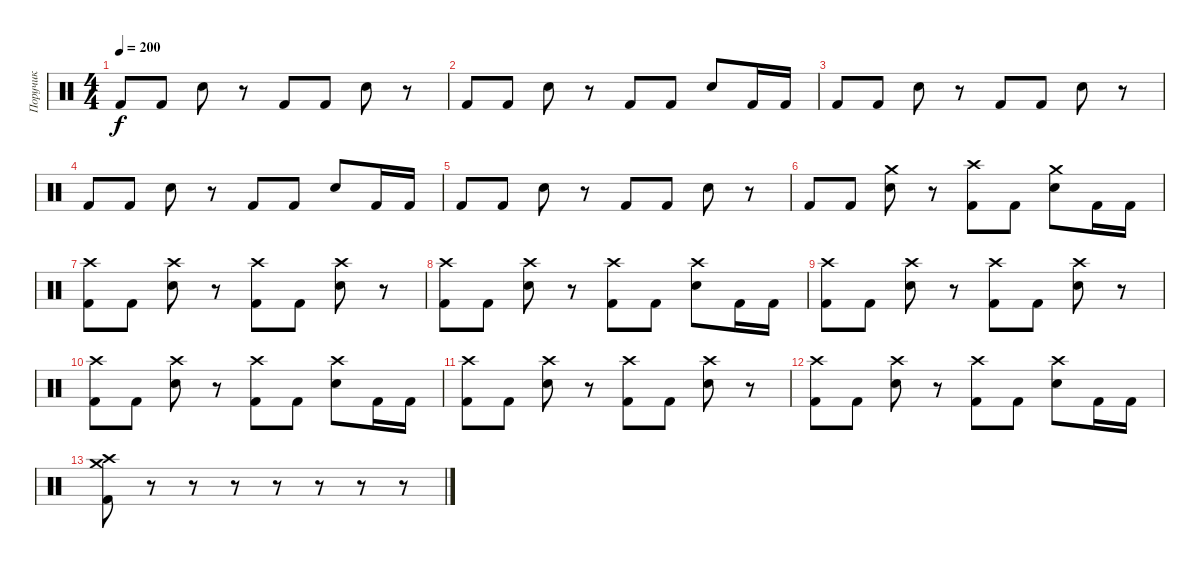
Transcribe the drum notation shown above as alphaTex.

\track ("Поручик" "Поручик") {instrument percussion}
\staff {score}
\articulation defaults
\ts (4 4)
\tempo 200
\clef neutral
\ks c "Kick (hit) 2".8{dy f} "Kick (hit) 2".8 "Electric Snare (hit)".8
r.8 "Kick (hit) 2".8 "Kick (hit) 2".8 "Electric Snare (hit)".8 r.8 |
"Kick (hit) 2".8 "Kick (hit) 2".8 "Electric Snare (hit)".8 r.8 "Kick (hit) 2".8 "Kick (hit) 2".8 "Electric Snare (hit)".8 "Kick (hit) 2".16 "Kick (hit) 2".16 |
"Kick (hit) 2".8 "Kick (hit) 2".8 "Electric Snare (hit)".8 r.8 "Kick (hit) 2".8 "Kick (hit) 2".8 "Electric Snare (hit)".8 r.8 |
"Kick (hit) 2".8 "Kick (hit) 2".8 "Electric Snare (hit)".8 r.8 "Kick (hit) 2".8 "Kick (hit) 2".8 "Electric Snare (hit)".8 "Kick (hit) 2".16 "Kick (hit) 2".16 |
"Kick (hit) 2".8 "Kick (hit) 2".8 "Electric Snare (hit)".8 r.8 "Kick (hit) 2".8 "Kick (hit) 2".8 "Electric Snare (hit)".8 r.8 |
"Kick (hit) 2".8 "Kick (hit) 2".8 ("Crash medium (hit)" "Electric Snare (hit)").8 r.8 ("Crash high (hit)" "Kick (hit) 2").8 "Kick (hit) 2".8 ("Crash medium (hit)" "Electric Snare (hit)").8 "Kick (hit) 2".16 "Kick (hit) 2".16 |
("Crash high (hit)" "Kick (hit) 2").8 "Kick (hit) 2".8 ("Crash high (hit)" "Electric Snare (hit)").8 r.8 ("Crash high (hit)" "Kick (hit) 2").8 "Kick (hit) 2".8 ("Crash high (hit)" "Electric Snare (hit)").8 r.8 |
("Crash high (hit)" "Kick (hit) 2").8 "Kick (hit) 2".8 ("Crash high (hit)" "Electric Snare (hit)").8 r.8 ("Crash high (hit)" "Kick (hit) 2").8 "Kick (hit) 2".8 ("Crash high (hit)" "Electric Snare (hit)").8 "Kick (hit) 2".16 "Kick (hit) 2".16 |
("Crash high (hit)" "Kick (hit) 2").8 "Kick (hit) 2".8 ("Crash high (hit)" "Electric Snare (hit)").8 r.8 ("Crash high (hit)" "Kick (hit) 2").8 "Kick (hit) 2".8 ("Crash high (hit)" "Electric Snare (hit)").8 r.8 |
("Crash high (hit)" "Kick (hit) 2").8 "Kick (hit) 2".8 ("Crash high (hit)" "Electric Snare (hit)").8 r.8 ("Crash high (hit)" "Kick (hit) 2").8 "Kick (hit) 2".8 ("Crash high (hit)" "Electric Snare (hit)").8 "Kick (hit) 2".16 "Kick (hit) 2".16 |
("Crash high (hit)" "Kick (hit) 2").8 "Kick (hit) 2".8 ("Crash high (hit)" "Electric Snare (hit)").8 r.8 ("Crash high (hit)" "Kick (hit) 2").8 "Kick (hit) 2".8 ("Crash high (hit)" "Electric Snare (hit)").8 r.8 |
("Crash high (hit)" "Kick (hit) 2").8 "Kick (hit) 2".8 ("Crash high (hit)" "Electric Snare (hit)").8 r.8 ("Crash high (hit)" "Kick (hit) 2").8 "Kick (hit) 2".8 ("Crash high (hit)" "Electric Snare (hit)").8 "Kick (hit) 2".16 "Kick (hit) 2".16 |
("Crash medium (hit)" "Crash high (hit)" "Kick (hit) 2").8 r.8 r.8 r.8 r.8 r.8 r.8 r.8
